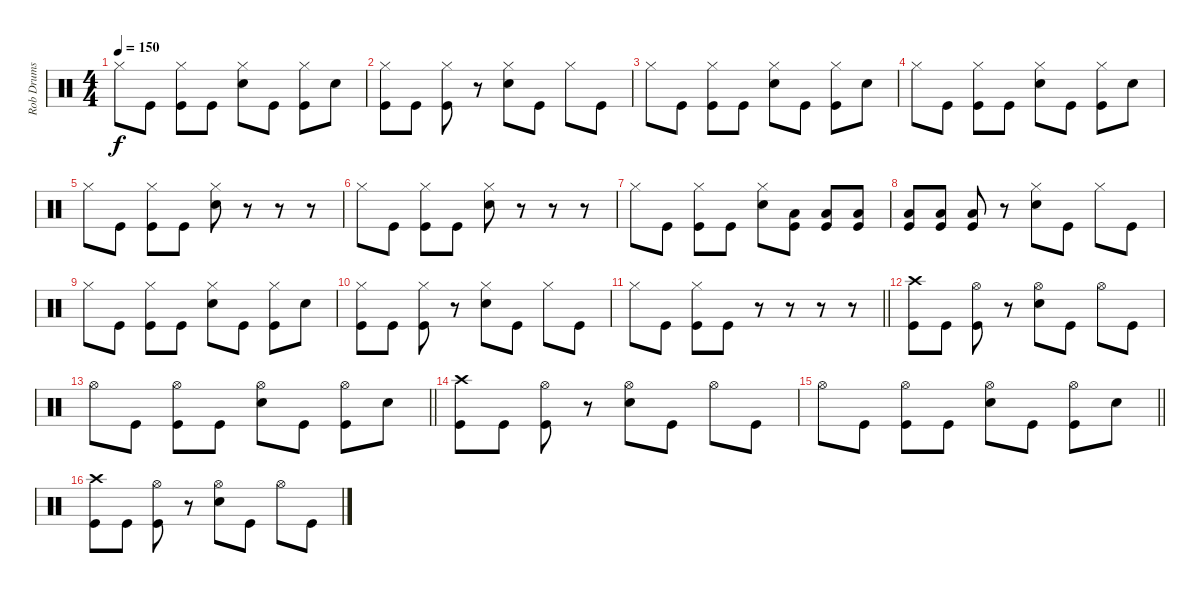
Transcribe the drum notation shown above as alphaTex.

\track ("Rob Drums" "Rob Drums") {instrument percussion}
\staff {score}
\articulation defaults
\ts (4 4)
\tempo 150
\clef neutral
\ks c "Hi-Hat (closed)".8{dy f} "Kick (hit)".8
("Hi-Hat (closed)" "Kick (hit)").8 "Kick (hit)".8 ("Hi-Hat (closed)" "Snare (hit) 2").8 "Kick (hit)".8 ("Hi-Hat (closed)" "Kick (hit)").8 "Snare (hit) 2".8 |
("Hi-Hat (closed)" "Kick (hit)").8 "Kick (hit)".8 ("Hi-Hat (closed)" "Kick (hit)").8 r.8 ("Hi-Hat (closed)" "Snare (hit) 2").8 "Kick (hit)".8 "Hi-Hat (closed)".8 "Kick (hit)".8 |
"Hi-Hat (closed)".8 "Kick (hit)".8 ("Hi-Hat (closed)" "Kick (hit)").8 "Kick (hit)".8 ("Hi-Hat (closed)" "Snare (hit) 2").8 "Kick (hit)".8 ("Hi-Hat (closed)" "Kick (hit)").8 "Snare (hit) 2".8 |
"Hi-Hat (closed)".8 "Kick (hit)".8 ("Hi-Hat (closed)" "Kick (hit)").8 "Kick (hit)".8 ("Hi-Hat (closed)" "Snare (hit) 2").8 "Kick (hit)".8 ("Hi-Hat (closed)" "Kick (hit)").8 "Snare (hit) 2".8 |
"Hi-Hat (closed)".8 "Kick (hit)".8 ("Hi-Hat (closed)" "Kick (hit)").8 "Kick (hit)".8 ("Hi-Hat (closed)" "Snare (hit) 2").8 r.8 r.8 r.8 |
"Hi-Hat (closed)".8 "Kick (hit)".8 ("Hi-Hat (closed)" "Kick (hit)").8 "Kick (hit)".8 ("Hi-Hat (closed)" "Snare (hit) 2").8 r.8 r.8 r.8 |
"Hi-Hat (closed)".8 "Kick (hit)".8 ("Hi-Hat (closed)" "Kick (hit)").8 "Kick (hit)".8 ("Hi-Hat (closed)" "Snare (hit) 2").8 ("Low Floor Tom (hit)" "Kick (hit)").8 ("Low Floor Tom (hit)" "Kick (hit)").8 ("Low Floor Tom (hit)" "Kick (hit)").8 |
("Low Floor Tom (hit)" "Kick (hit)").8 ("Low Floor Tom (hit)" "Kick (hit)").8 ("Low Floor Tom (hit)" "Kick (hit)").8 r.8 ("Hi-Hat (closed)" "Snare (hit) 2").8 "Kick (hit)".8 "Hi-Hat (closed)".8 "Kick (hit)".8 |
"Hi-Hat (closed)".8 "Kick (hit)".8 ("Hi-Hat (closed)" "Kick (hit)").8 "Kick (hit)".8 ("Hi-Hat (closed)" "Snare (hit) 2").8 "Kick (hit)".8 ("Hi-Hat (closed)" "Kick (hit)").8 "Snare (hit) 2".8 |
("Hi-Hat (closed)" "Kick (hit)").8 "Kick (hit)".8 ("Hi-Hat (closed)" "Kick (hit)").8 r.8 ("Hi-Hat (closed)" "Snare (hit) 2").8 "Kick (hit)".8 "Hi-Hat (closed)".8 "Kick (hit)".8 |
\barLineRight lightlight "Hi-Hat (closed)".8 "Kick (hit)".8
("Hi-Hat (closed)" "Kick (hit)").8 "Kick (hit)".8 r.8 r.8 r.8 r.8 |
("Crash high (hit)" "Kick (hit)").8 "Kick (hit)".8 ("Hi-Hat (open)" "Kick (hit)").8 r.8 ("Hi-Hat (open)" "Snare (hit) 2").8 "Kick (hit)".8 "Hi-Hat (open)".8 "Kick (hit)".8 |
\barLineRight lightlight "Hi-Hat (open)".8 "Kick (hit)".8
("Hi-Hat (open)" "Kick (hit)").8 "Kick (hit)".8 ("Hi-Hat (open)" "Snare (hit) 2").8 "Kick (hit)".8 ("Hi-Hat (open)" "Kick (hit)").8 "Snare (hit) 2".8 |
("Crash high (hit)" "Kick (hit)").8 "Kick (hit)".8 ("Hi-Hat (open)" "Kick (hit)").8 r.8 ("Hi-Hat (open)" "Snare (hit) 2").8 "Kick (hit)".8 "Hi-Hat (open)".8 "Kick (hit)".8 |
\barLineRight lightlight "Hi-Hat (open)".8 "Kick (hit)".8
("Hi-Hat (open)" "Kick (hit)").8 "Kick (hit)".8 ("Hi-Hat (open)" "Snare (hit) 2").8 "Kick (hit)".8 ("Hi-Hat (open)" "Kick (hit)").8 "Snare (hit) 2".8 |
("Crash high (hit)" "Kick (hit)").8 "Kick (hit)".8 ("Hi-Hat (open)" "Kick (hit)").8 r.8 ("Hi-Hat (open)" "Snare (hit) 2").8 "Kick (hit)".8 "Hi-Hat (open)".8 "Kick (hit)".8
